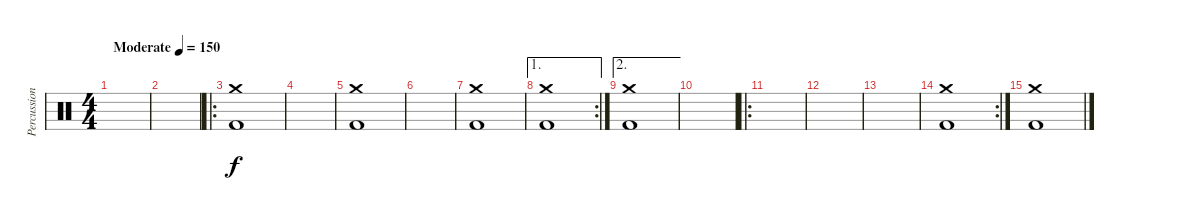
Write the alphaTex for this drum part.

\track ("Percussion" "Percussion") {instrument percussion}
\staff {score}
\articulation defaults
\ts (4 4)
\tempo (150 "Moderate")
\clef neutral
\ks c
|
|
\ro
("Crash medium (hit)" "Kick (hit) 2").1 |
|
("Crash medium (hit)" "Kick (hit) 2").1 |
|
("Crash medium (hit)" "Kick (hit) 2").1 |
\ae 1
\rc 2
("Crash medium (hit)" "Kick (hit) 2").1 |
\ae 2
("Crash medium (hit)" "Kick (hit) 2").1 |
|
\ro
|
|
|
\rc 2
("Crash medium (hit)" "Kick (hit) 2").1 |
("Crash medium (hit)" "Kick (hit) 2").1
